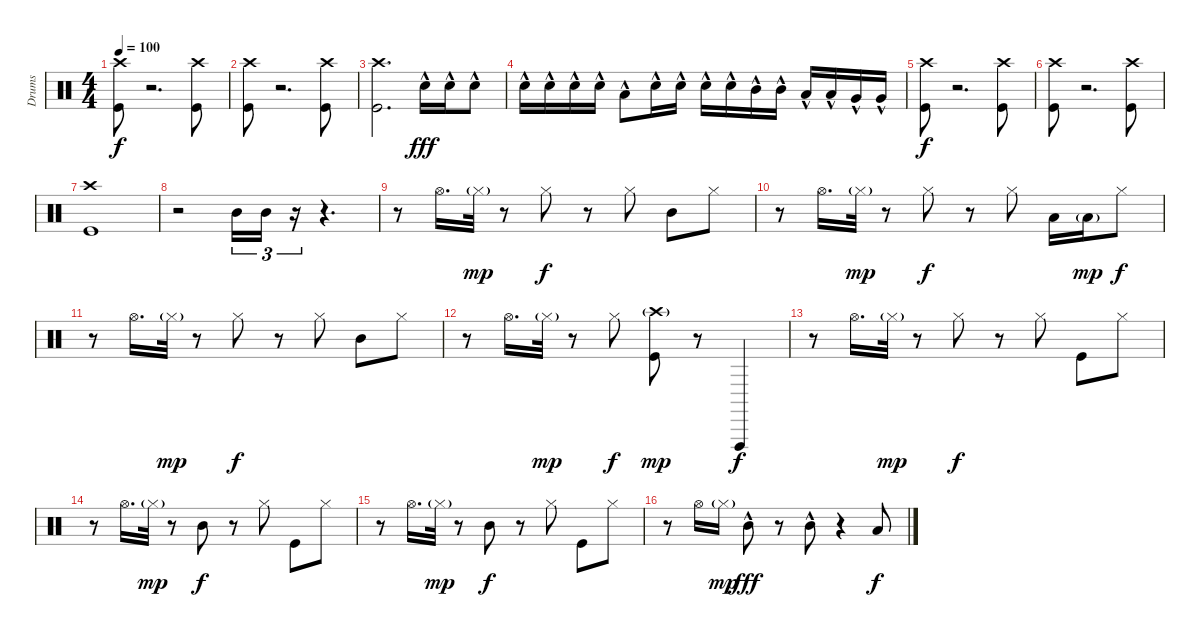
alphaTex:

\track ("Drums" "Drums") {instrument percussion}
\staff {score}
\articulation defaults
\ts (4 4)
\tempo 100
\clef neutral
\ks c
("Crash high (hit)" "Kick (hit)").8{dy f} r.2{d} ("Crash high (hit)" "Kick (hit)").8 |
("Crash high (hit)" "Kick (hit)").8 r.2{d} ("Crash high (hit)" "Kick (hit)").8 |
("Crash high (hit)" "Kick (hit)").2{d} "Snare (hit) 2"{hac}.16{dy fff volume 16} "Snare (hit) 2"{hac}.16 "Snare (hit) 2"{hac}.8 |
"Snare (hit) 2"{hac}.16 "Snare (hit) 2"{hac}.16 "Snare (hit) 2"{hac}.16 "Snare (hit) 2"{hac}.16 "Low Tom (hit)"{hac}.8 "Snare (hit) 2"{hac}.16 "Snare (hit) 2"{hac}.16 "Snare (hit) 2"{hac}.16 "Snare (hit) 2"{hac}.16 "Mid Tom (hit)"{hac}.16 "Mid Tom (hit)"{hac}.16 "Low Tom (hit)"{hac}.16 "Low Tom (hit)"{hac}.16 "Very Low Tom (hit)"{hac}.16 "Very Low Tom (hit)"{hac}.16 |
("Crash high (hit)" "Kick (hit)").8{dy f volume 10} r.2{d} ("Crash high (hit)" "Kick (hit)").8 |
("Crash high (hit)" "Kick (hit)").8 r.2{d} ("Crash high (hit)" "Kick (hit)").8 |
("Crash high (hit)" "Kick (hit)").1 |
r.2{volume 14} "Mid Tom (hit)".16{tu (3 2)} "Mid Tom (hit)".16{tu (3 2)} r.16{tu (3 2)} r.4{d} |
r.8{volume 11} "Hi-Hat (open)".16{d} "Hi-Hat (closed)"{g}.32{dy mp} r.8 "Hi-Hat (closed)".8{dy f} r.8 "Hi-Hat (closed)".8 "Mid Tom (hit)".8 "Hi-Hat (closed)".8 |
r.8 "Hi-Hat (open)".16{d} "Hi-Hat (closed)"{g}.32{dy mp} r.8 "Hi-Hat (closed)".8{dy f} r.8 "Hi-Hat (closed)".8 "Low Tom (hit)".16 "Low Tom (hit)"{g}.16{dy mp} "Hi-Hat (closed)".8{dy f} |
r.8 "Hi-Hat (open)".16{d} "Hi-Hat (closed)"{g}.32{dy mp} r.8 "Hi-Hat (closed)".8{dy f} r.8 "Hi-Hat (closed)".8 "Mid Tom (hit)".8 "Hi-Hat (closed)".8 |
r.8 "Hi-Hat (open)".16{d} "Hi-Hat (closed)"{g}.32{dy mp} r.8 "Hi-Hat (closed)".8{dy f} ("Crash high (hit)"{g} "Kick (hit)").8{dy mp} r.8 "Vibraslap (hit)".4{dy f} |
r.8 "Hi-Hat (open)".16{d} "Hi-Hat (closed)"{g}.32{dy mp} r.8 "Hi-Hat (closed)".8{dy f} r.8 "Hi-Hat (closed)".8 "Kick (hit)".8 "Hi-Hat (closed)".8 |
r.8 "Hi-Hat (open)".16{d} "Hi-Hat (closed)"{g}.32{dy mp} r.8 "Mid Tom (hit)".8{dy f} r.8 "Hi-Hat (closed)".8 "Kick (hit)".8 "Hi-Hat (closed)".8 |
r.8 "Hi-Hat (open)".16{d} "Hi-Hat (closed)"{g}.32{dy mp} r.8 "Mid Tom (hit)".8{dy f} r.8 "Hi-Hat (closed)".8 "Kick (hit)".8 "Hi-Hat (closed)".8 |
r.8 "Hi-Hat (open)".16 "Hi-Hat (closed)"{g}.16{dy mp} "Mid Tom (hit)"{hac}.8{dy fff} r.8 "Mid Tom (hit)"{hac}.8 r.4 "Low Tom (hit)".8{dy f}
